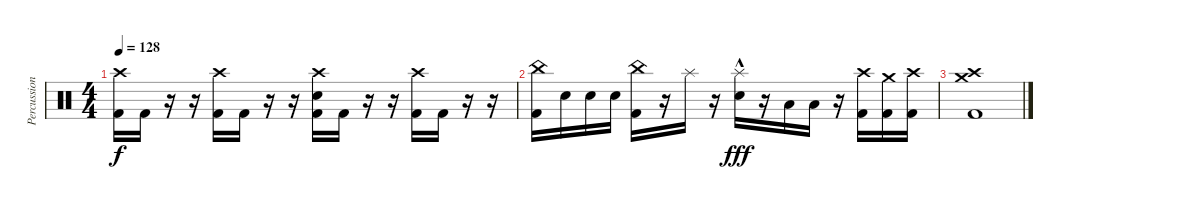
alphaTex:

\track ("Percussion" "Percussion") {instrument percussion}
\staff {score}
\articulation defaults
\ts (4 4)
\tempo 128
\clef neutral
\ks c
("Crash high (hit)" "Kick (hit) 2").16{dy f} "Kick (hit) 2".16 r.16 r.16 ("Crash high (hit)" "Kick (hit) 2").16 "Kick (hit) 2".16 r.16 r.16 ("Crash high (hit)" "Snare (hit) 2" "Kick (hit) 2").16 "Kick (hit) 2".16 r.16 r.16 ("Crash high (hit)" "Kick (hit) 2").16 "Kick (hit) 2".16 r.16 r.16 |
("China (hit)" "Kick (hit) 2").16 "Snare (hit) 2".16 "Snare (hit) 2".16 "Snare (hit) 2".16 ("China (hit)" "Kick (hit) 2").16 r.16 "Splash (hit)".16 r.16 ("Splash (hit)"{hac} "Snare (hit) 2").16{dy fff} r.16 "Low Tom (hit)".16 "Low Tom (hit)".16 r.16 ("Crash high (hit)" "Kick (hit) 2").16 ("Crash medium (hit)" "Kick (hit) 2").16 ("Crash high (hit)" "Kick (hit) 2").16 |
("Crash medium (hit)" "Crash high (hit)" "Kick (hit) 2").1
